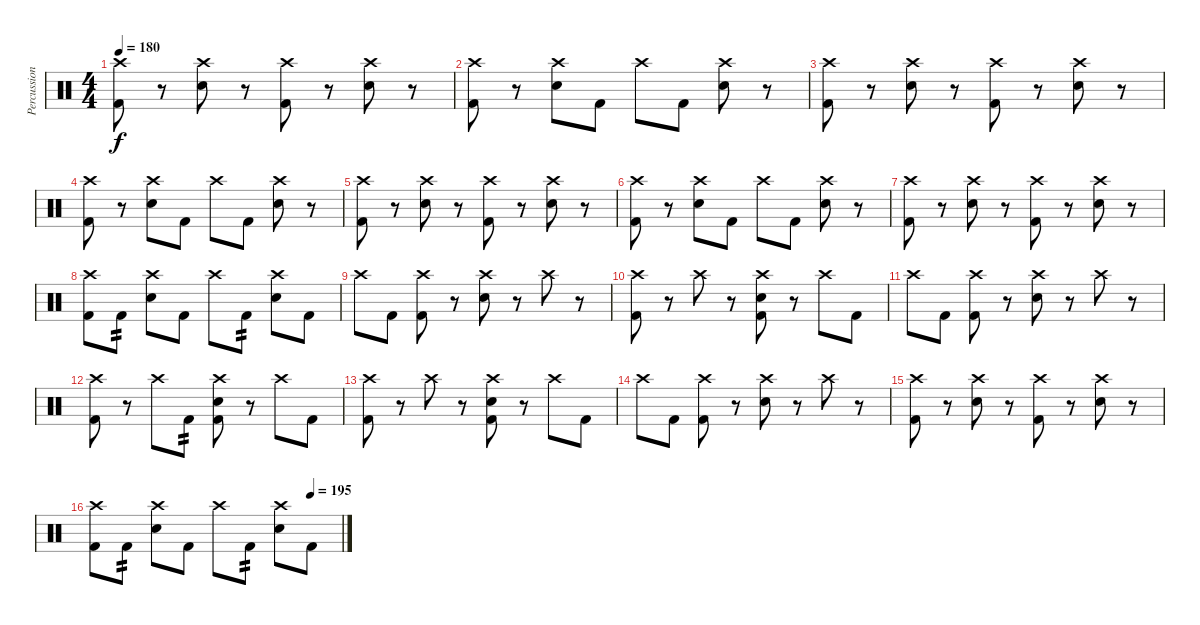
\track ("Percussion" "Percussion") {instrument percussion}
\staff {score}
\articulation defaults
\ts (4 4)
\tempo 180
\clef neutral
\ks c
("Crash high (hit)" "Kick (hit) 2").8{dy f} r.8 ("Crash high (hit)" "Electric Snare (hit)").8 r.8 ("Crash high (hit)" "Kick (hit) 2").8 r.8 ("Crash high (hit)" "Electric Snare (hit)").8 r.8 |
("Crash high (hit)" "Kick (hit) 2").8 r.8 ("Crash high (hit)" "Electric Snare (hit)").8 "Kick (hit) 2".8 "Crash high (hit)".8 "Kick (hit) 2".8 ("Crash high (hit)" "Electric Snare (hit)").8 r.8 |
("Crash high (hit)" "Kick (hit) 2").8 r.8 ("Crash high (hit)" "Electric Snare (hit)").8 r.8 ("Crash high (hit)" "Kick (hit) 2").8 r.8 ("Crash high (hit)" "Electric Snare (hit)").8 r.8 |
("Crash high (hit)" "Kick (hit) 2").8 r.8 ("Crash high (hit)" "Electric Snare (hit)").8 "Kick (hit) 2".8 "Crash high (hit)".8 "Kick (hit) 2".8 ("Crash high (hit)" "Electric Snare (hit)").8 r.8 |
("Crash high (hit)" "Kick (hit) 2").8 r.8 ("Crash high (hit)" "Electric Snare (hit)").8 r.8 ("Crash high (hit)" "Kick (hit) 2").8 r.8 ("Crash high (hit)" "Electric Snare (hit)").8 r.8 |
("Crash high (hit)" "Kick (hit) 2").8 r.8 ("Crash high (hit)" "Electric Snare (hit)").8 "Kick (hit) 2".8 "Crash high (hit)".8 "Kick (hit) 2".8 ("Crash high (hit)" "Electric Snare (hit)").8 r.8 |
("Crash high (hit)" "Kick (hit) 2").8 r.8 ("Crash high (hit)" "Electric Snare (hit)").8 r.8 ("Crash high (hit)" "Kick (hit) 2").8 r.8 ("Crash high (hit)" "Electric Snare (hit)").8 r.8 |
("Crash high (hit)" "Kick (hit) 2").8 "Kick (hit) 2".8{tp 2} ("Crash high (hit)" "Electric Snare (hit)").8 "Kick (hit) 2".8 "Crash high (hit)".8 "Kick (hit) 2".8{tp 2} ("Crash high (hit)" "Electric Snare (hit)").8 "Kick (hit) 2".8 |
"Crash high (hit)".8 "Kick (hit) 2".8 ("Crash high (hit)" "Kick (hit) 2").8 r.8 ("Crash high (hit)" "Electric Snare (hit)").8 r.8 "Crash high (hit)".8 r.8 |
("Crash high (hit)" "Kick (hit) 2").8 r.8 "Crash high (hit)".8 r.8 ("Crash high (hit)" "Electric Snare (hit)" "Kick (hit) 2").8 r.8 "Crash high (hit)".8 "Kick (hit) 2".8 |
"Crash high (hit)".8 "Kick (hit) 2".8 ("Crash high (hit)" "Kick (hit) 2").8 r.8 ("Crash high (hit)" "Electric Snare (hit)").8 r.8 "Crash high (hit)".8 r.8 |
("Crash high (hit)" "Kick (hit) 2").8 r.8 "Crash high (hit)".8 "Kick (hit) 2".8{tp 2} ("Crash high (hit)" "Electric Snare (hit)" "Kick (hit) 2").8 r.8 "Crash high (hit)".8 "Kick (hit) 2".8 |
("Crash high (hit)" "Kick (hit) 2").8 r.8 "Crash high (hit)".8 r.8 ("Crash high (hit)" "Electric Snare (hit)" "Kick (hit) 2").8 r.8 "Crash high (hit)".8 "Kick (hit) 2".8 |
"Crash high (hit)".8 "Kick (hit) 2".8 ("Crash high (hit)" "Kick (hit) 2").8 r.8 ("Crash high (hit)" "Electric Snare (hit)").8 r.8 "Crash high (hit)".8 r.8 |
("Crash high (hit)" "Kick (hit) 2").8 r.8 ("Crash high (hit)" "Electric Snare (hit)").8 r.8 ("Crash high (hit)" "Kick (hit) 2").8 r.8 ("Crash high (hit)" "Electric Snare (hit)").8 r.8 |
\tempo (195 0.875)
("Crash high (hit)" "Kick (hit) 2").8 "Kick (hit) 2".8{tp 2} ("Crash high (hit)" "Electric Snare (hit)").8 "Kick (hit) 2".8 "Crash high (hit)".8 "Kick (hit) 2".8{tp 2} ("Crash high (hit)" "Electric Snare (hit)").8 "Kick (hit) 2".8
